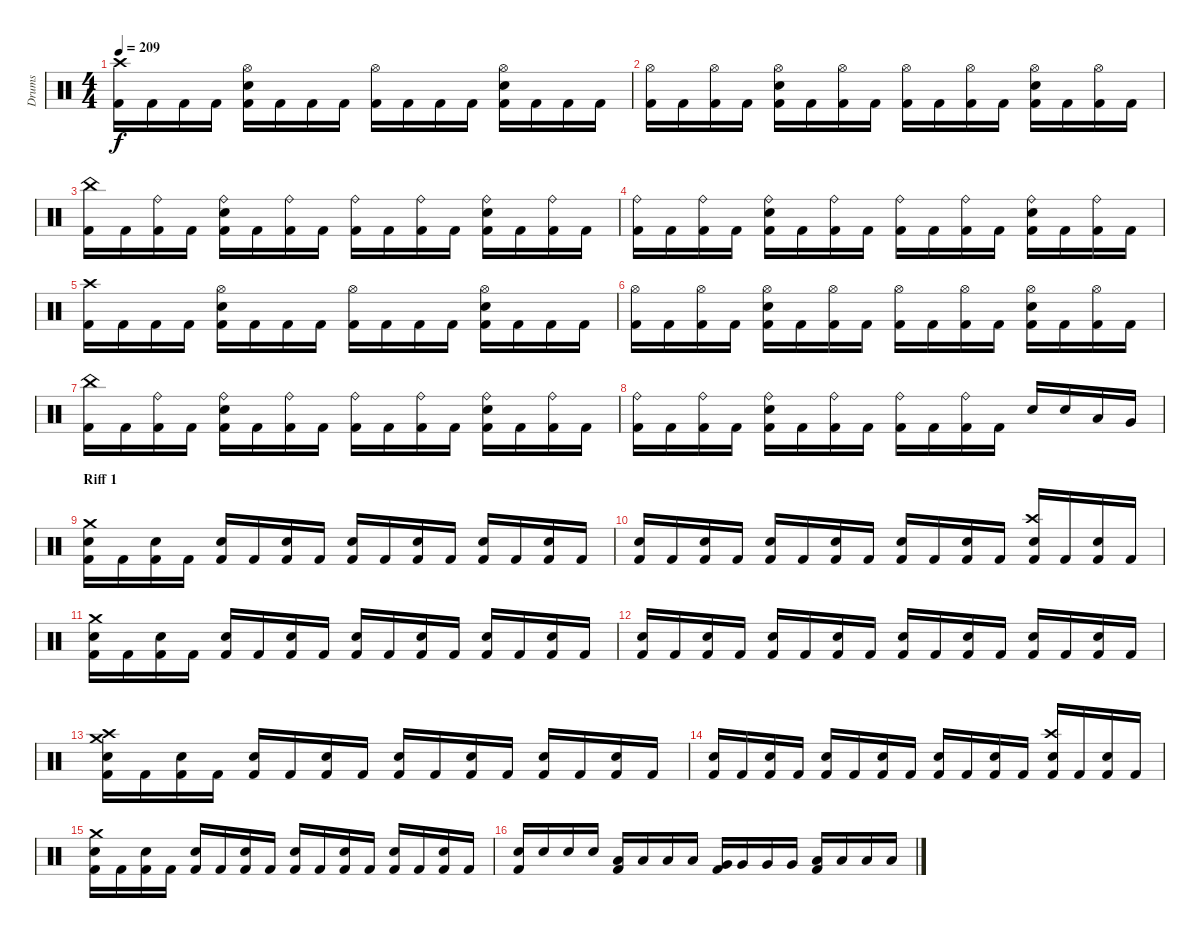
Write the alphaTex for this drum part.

\track ("Drums" "Drums") {instrument percussion}
\staff {score}
\articulation defaults
\ts (4 4)
\tempo 209
\clef neutral
\ks c
("Kick (hit) 2" "Crash high (hit)").16{dy f} "Kick (hit) 2".16 "Kick (hit) 2".16 "Kick (hit) 2".16 ("Kick (hit) 2" "Snare (hit) 2" "Hi-Hat (open)").16 "Kick (hit) 2".16 "Kick (hit) 2".16 "Kick (hit) 2".16 ("Kick (hit) 2" "Hi-Hat (open)").16 "Kick (hit) 2".16 "Kick (hit) 2".16 "Kick (hit) 2".16 ("Kick (hit) 2" "Snare (hit) 2" "Hi-Hat (open)").16 "Kick (hit) 2".16 "Kick (hit) 2".16 "Kick (hit) 2".16 |
("Kick (hit) 2" "Hi-Hat (open)").16 "Kick (hit) 2".16 ("Kick (hit) 2" "Hi-Hat (open)").16 "Kick (hit) 2".16 ("Kick (hit) 2" "Snare (hit) 2" "Hi-Hat (open)").16 "Kick (hit) 2".16 ("Kick (hit) 2" "Hi-Hat (open)").16 "Kick (hit) 2".16 ("Kick (hit) 2" "Hi-Hat (open)").16 "Kick (hit) 2".16 ("Kick (hit) 2" "Hi-Hat (open)").16 "Kick (hit) 2".16 ("Kick (hit) 2" "Snare (hit) 2" "Hi-Hat (open)").16 "Kick (hit) 2".16 ("Kick (hit) 2" "Hi-Hat (open)").16 "Kick (hit) 2".16 |
("Kick (hit) 2" "China (hit)").16 "Kick (hit) 2".16 ("Kick (hit) 2" "Ride (bell)").16 "Kick (hit) 2".16 ("Kick (hit) 2" "Snare (hit) 2" "Ride (bell)").16 "Kick (hit) 2".16 ("Kick (hit) 2" "Ride (bell)").16 "Kick (hit) 2".16 ("Kick (hit) 2" "Ride (bell)").16 "Kick (hit) 2".16 ("Kick (hit) 2" "Ride (bell)").16 "Kick (hit) 2".16 ("Kick (hit) 2" "Snare (hit) 2" "Ride (bell)").16 "Kick (hit) 2".16 ("Kick (hit) 2" "Ride (bell)").16 "Kick (hit) 2".16 |
("Kick (hit) 2" "Ride (bell)").16 "Kick (hit) 2".16 ("Kick (hit) 2" "Ride (bell)").16 "Kick (hit) 2".16 ("Kick (hit) 2" "Snare (hit) 2" "Ride (bell)").16 "Kick (hit) 2".16 ("Kick (hit) 2" "Ride (bell)").16 "Kick (hit) 2".16 ("Kick (hit) 2" "Ride (bell)").16 "Kick (hit) 2".16 ("Kick (hit) 2" "Ride (bell)").16 "Kick (hit) 2".16 ("Kick (hit) 2" "Snare (hit) 2" "Ride (bell)").16 "Kick (hit) 2".16 ("Kick (hit) 2" "Ride (bell)").16 "Kick (hit) 2".16 |
("Kick (hit) 2" "Crash high (hit)").16 "Kick (hit) 2".16 "Kick (hit) 2".16 "Kick (hit) 2".16 ("Kick (hit) 2" "Snare (hit) 2" "Hi-Hat (open)").16 "Kick (hit) 2".16 "Kick (hit) 2".16 "Kick (hit) 2".16 ("Kick (hit) 2" "Hi-Hat (open)").16 "Kick (hit) 2".16 "Kick (hit) 2".16 "Kick (hit) 2".16 ("Kick (hit) 2" "Snare (hit) 2" "Hi-Hat (open)").16 "Kick (hit) 2".16 "Kick (hit) 2".16 "Kick (hit) 2".16 |
("Kick (hit) 2" "Hi-Hat (open)").16 "Kick (hit) 2".16 ("Kick (hit) 2" "Hi-Hat (open)").16 "Kick (hit) 2".16 ("Kick (hit) 2" "Snare (hit) 2" "Hi-Hat (open)").16 "Kick (hit) 2".16 ("Kick (hit) 2" "Hi-Hat (open)").16 "Kick (hit) 2".16 ("Kick (hit) 2" "Hi-Hat (open)").16 "Kick (hit) 2".16 ("Kick (hit) 2" "Hi-Hat (open)").16 "Kick (hit) 2".16 ("Kick (hit) 2" "Snare (hit) 2" "Hi-Hat (open)").16 "Kick (hit) 2".16 ("Kick (hit) 2" "Hi-Hat (open)").16 "Kick (hit) 2".16 |
("Kick (hit) 2" "China (hit)").16 "Kick (hit) 2".16 ("Kick (hit) 2" "Ride (bell)").16 "Kick (hit) 2".16 ("Kick (hit) 2" "Snare (hit) 2" "Ride (bell)").16 "Kick (hit) 2".16 ("Kick (hit) 2" "Ride (bell)").16 "Kick (hit) 2".16 ("Kick (hit) 2" "Ride (bell)").16 "Kick (hit) 2".16 ("Kick (hit) 2" "Ride (bell)").16 "Kick (hit) 2".16 ("Kick (hit) 2" "Snare (hit) 2" "Ride (bell)").16 "Kick (hit) 2".16 ("Kick (hit) 2" "Ride (bell)").16 "Kick (hit) 2".16 |
("Kick (hit) 2" "Ride (bell)").16 "Kick (hit) 2".16 ("Kick (hit) 2" "Ride (bell)").16 "Kick (hit) 2".16 ("Kick (hit) 2" "Snare (hit) 2" "Ride (bell)").16 "Kick (hit) 2".16 ("Kick (hit) 2" "Ride (bell)").16 "Kick (hit) 2".16 ("Kick (hit) 2" "Ride (bell)").16 "Kick (hit) 2".16 ("Kick (hit) 2" "Ride (bell)").16 "Kick (hit) 2".16 "Snare (hit) 2".16 "Snare (hit) 2".16 "Low Tom (hit)".16 "Very Low Tom (hit)".16 |
\section ("" "Riff 1")
("Kick (hit) 2" "Snare (hit) 2" "Crash medium (hit)").16 "Kick (hit) 2".16 ("Kick (hit) 2" "Snare (hit) 2").16 "Kick (hit) 2".16 ("Kick (hit) 2" "Snare (hit) 2").16 "Kick (hit) 2".16 ("Kick (hit) 2" "Snare (hit) 2").16 "Kick (hit) 2".16 ("Kick (hit) 2" "Snare (hit) 2").16 "Kick (hit) 2".16 ("Kick (hit) 2" "Snare (hit) 2").16 "Kick (hit) 2".16 ("Kick (hit) 2" "Snare (hit) 2").16 "Kick (hit) 2".16 ("Kick (hit) 2" "Snare (hit) 2").16 "Kick (hit) 2".16 |
("Kick (hit) 2" "Snare (hit) 2").16 "Kick (hit) 2".16 ("Kick (hit) 2" "Snare (hit) 2").16 "Kick (hit) 2".16 ("Kick (hit) 2" "Snare (hit) 2").16 "Kick (hit) 2".16 ("Kick (hit) 2" "Snare (hit) 2").16 "Kick (hit) 2".16 ("Kick (hit) 2" "Snare (hit) 2").16 "Kick (hit) 2".16 ("Kick (hit) 2" "Snare (hit) 2").16 "Kick (hit) 2".16 ("Kick (hit) 2" "Snare (hit) 2" "Crash high (hit)").16 "Kick (hit) 2".16 ("Kick (hit) 2" "Snare (hit) 2").16 "Kick (hit) 2".16 |
("Kick (hit) 2" "Snare (hit) 2" "Crash medium (hit)").16 "Kick (hit) 2".16 ("Kick (hit) 2" "Snare (hit) 2").16 "Kick (hit) 2".16 ("Kick (hit) 2" "Snare (hit) 2").16 "Kick (hit) 2".16 ("Kick (hit) 2" "Snare (hit) 2").16 "Kick (hit) 2".16 ("Kick (hit) 2" "Snare (hit) 2").16 "Kick (hit) 2".16 ("Kick (hit) 2" "Snare (hit) 2").16 "Kick (hit) 2".16 ("Kick (hit) 2" "Snare (hit) 2").16 "Kick (hit) 2".16 ("Kick (hit) 2" "Snare (hit) 2").16 "Kick (hit) 2".16 |
("Kick (hit) 2" "Snare (hit) 2").16 "Kick (hit) 2".16 ("Kick (hit) 2" "Snare (hit) 2").16 "Kick (hit) 2".16 ("Kick (hit) 2" "Snare (hit) 2").16 "Kick (hit) 2".16 ("Kick (hit) 2" "Snare (hit) 2").16 "Kick (hit) 2".16 ("Kick (hit) 2" "Snare (hit) 2").16 "Kick (hit) 2".16 ("Kick (hit) 2" "Snare (hit) 2").16 "Kick (hit) 2".16 ("Kick (hit) 2" "Snare (hit) 2").16 "Kick (hit) 2".16 ("Kick (hit) 2" "Snare (hit) 2").16 "Kick (hit) 2".16 |
("Kick (hit) 2" "Snare (hit) 2" "Crash high (hit)" "Crash medium (hit)").16 "Kick (hit) 2".16 ("Kick (hit) 2" "Snare (hit) 2").16 "Kick (hit) 2".16 ("Kick (hit) 2" "Snare (hit) 2").16 "Kick (hit) 2".16 ("Kick (hit) 2" "Snare (hit) 2").16 "Kick (hit) 2".16 ("Kick (hit) 2" "Snare (hit) 2").16 "Kick (hit) 2".16 ("Kick (hit) 2" "Snare (hit) 2").16 "Kick (hit) 2".16 ("Kick (hit) 2" "Snare (hit) 2").16 "Kick (hit) 2".16 ("Kick (hit) 2" "Snare (hit) 2").16 "Kick (hit) 2".16 |
("Kick (hit) 2" "Snare (hit) 2").16 "Kick (hit) 2".16 ("Kick (hit) 2" "Snare (hit) 2").16 "Kick (hit) 2".16 ("Kick (hit) 2" "Snare (hit) 2").16 "Kick (hit) 2".16 ("Kick (hit) 2" "Snare (hit) 2").16 "Kick (hit) 2".16 ("Kick (hit) 2" "Snare (hit) 2").16 "Kick (hit) 2".16 ("Kick (hit) 2" "Snare (hit) 2").16 "Kick (hit) 2".16 ("Kick (hit) 2" "Snare (hit) 2" "Crash high (hit)").16 "Kick (hit) 2".16 ("Kick (hit) 2" "Snare (hit) 2").16 "Kick (hit) 2".16 |
("Kick (hit) 2" "Snare (hit) 2" "Crash medium (hit)").16 "Kick (hit) 2".16 ("Kick (hit) 2" "Snare (hit) 2").16 "Kick (hit) 2".16 ("Kick (hit) 2" "Snare (hit) 2").16 "Kick (hit) 2".16 ("Kick (hit) 2" "Snare (hit) 2").16 "Kick (hit) 2".16 ("Kick (hit) 2" "Snare (hit) 2").16 "Kick (hit) 2".16 ("Kick (hit) 2" "Snare (hit) 2").16 "Kick (hit) 2".16 ("Kick (hit) 2" "Snare (hit) 2").16 "Kick (hit) 2".16 ("Kick (hit) 2" "Snare (hit) 2").16 "Kick (hit) 2".16 |
("Kick (hit) 2" "Snare (hit) 2").16 "Snare (hit) 2".16 "Snare (hit) 2".16 "Snare (hit) 2".16 ("Kick (hit) 2" "Low Tom (hit)").16 "Low Tom (hit)".16 "Low Tom (hit)".16 "Low Tom (hit)".16 ("Kick (hit) 2" "Very Low Tom (hit)").16 "Very Low Tom (hit)".16 "Very Low Tom (hit)".16 "Very Low Tom (hit)".16 ("Kick (hit) 2" "Low Floor Tom (hit)").16 "Low Floor Tom (hit)".16 "Low Floor Tom (hit)".16 "Low Floor Tom (hit)".16
